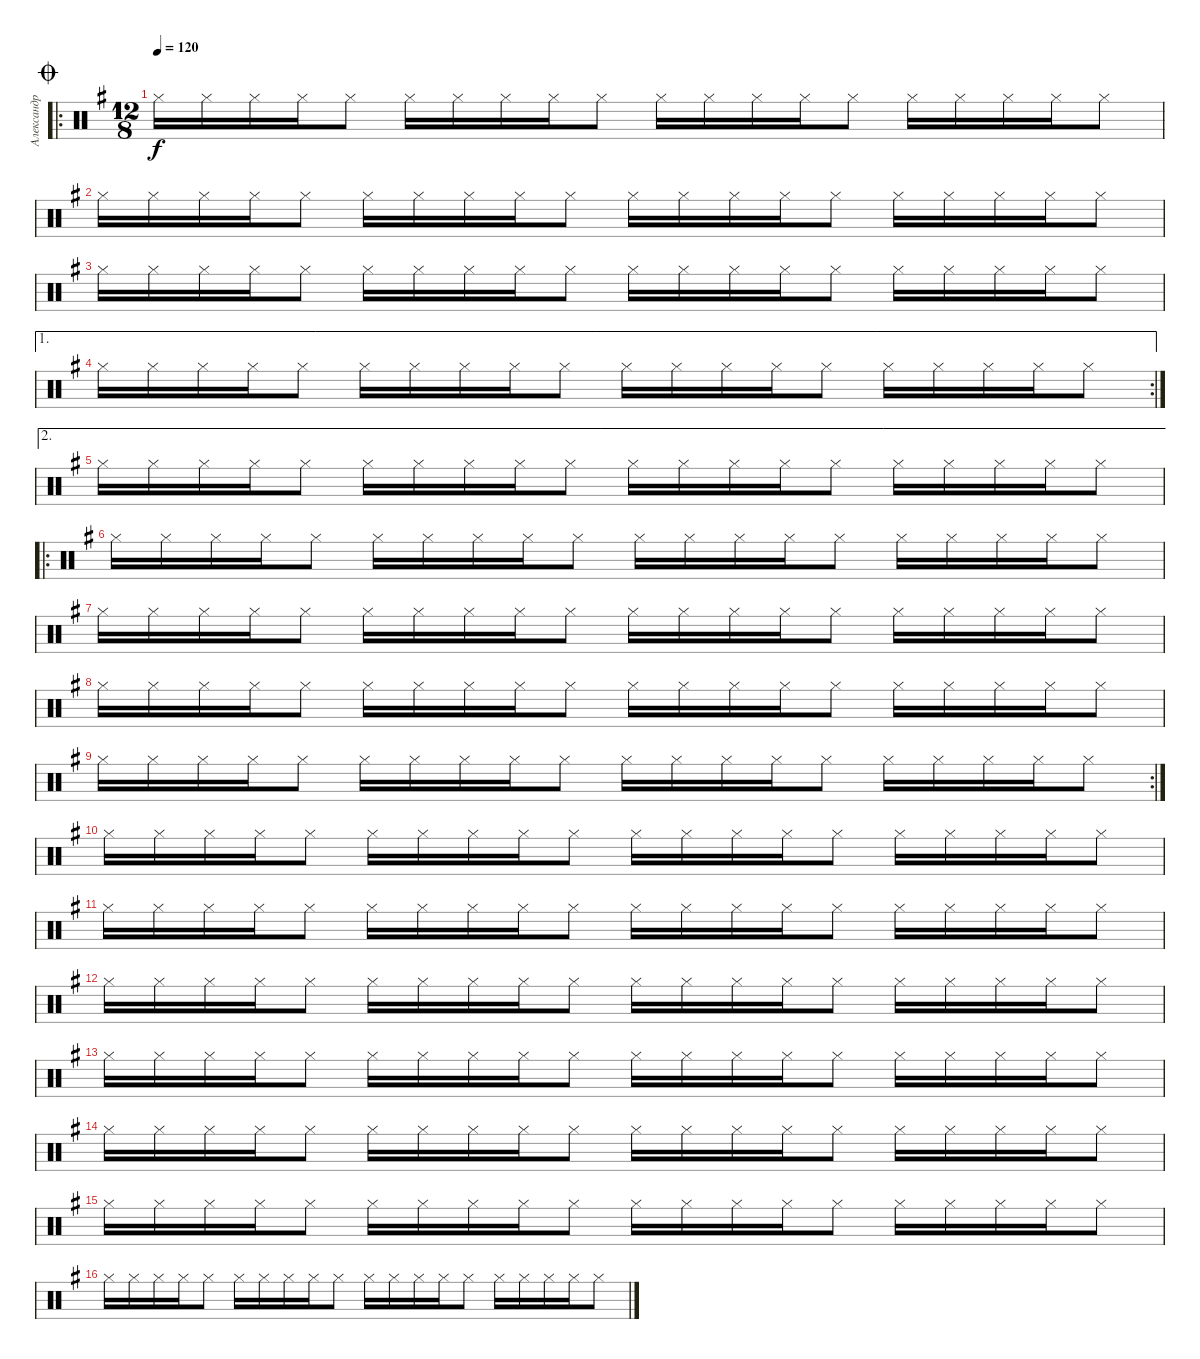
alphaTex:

\track ("Александр Манякин" "Александр ") {instrument percussion}
\staff {score}
\articulation defaults
\ro
\ts (12 8)
\jump coda
\tempo 120
\clef neutral
\ks g "Hi-Hat (closed)".16{dy f} "Hi-Hat (closed)".16 "Hi-Hat (closed)".16 "Hi-Hat (closed)".16 "Hi-Hat (closed)".8 "Hi-Hat (closed)".16 "Hi-Hat (closed)".16 "Hi-Hat (closed)".16 "Hi-Hat (closed)".16 "Hi-Hat (closed)".8 "Hi-Hat (closed)".16 "Hi-Hat (closed)".16 "Hi-Hat (closed)".16 "Hi-Hat (closed)".16 "Hi-Hat (closed)".8 "Hi-Hat (closed)".16 "Hi-Hat (closed)".16 "Hi-Hat (closed)".16 "Hi-Hat (closed)".16 "Hi-Hat (closed)".8
|
"Hi-Hat (closed)".16 "Hi-Hat (closed)".16 "Hi-Hat (closed)".16 "Hi-Hat (closed)".16 "Hi-Hat (closed)".8 "Hi-Hat (closed)".16 "Hi-Hat (closed)".16 "Hi-Hat (closed)".16 "Hi-Hat (closed)".16 "Hi-Hat (closed)".8 "Hi-Hat (closed)".16 "Hi-Hat (closed)".16 "Hi-Hat (closed)".16 "Hi-Hat (closed)".16 "Hi-Hat (closed)".8 "Hi-Hat (closed)".16 "Hi-Hat (closed)".16 "Hi-Hat (closed)".16 "Hi-Hat (closed)".16 "Hi-Hat (closed)".8 |
"Hi-Hat (closed)".16 "Hi-Hat (closed)".16 "Hi-Hat (closed)".16 "Hi-Hat (closed)".16 "Hi-Hat (closed)".8 "Hi-Hat (closed)".16 "Hi-Hat (closed)".16 "Hi-Hat (closed)".16 "Hi-Hat (closed)".16 "Hi-Hat (closed)".8 "Hi-Hat (closed)".16 "Hi-Hat (closed)".16 "Hi-Hat (closed)".16 "Hi-Hat (closed)".16 "Hi-Hat (closed)".8 "Hi-Hat (closed)".16 "Hi-Hat (closed)".16 "Hi-Hat (closed)".16 "Hi-Hat (closed)".16 "Hi-Hat (closed)".8 |
\ae 1
\rc 2 "Hi-Hat (closed)".16 "Hi-Hat (closed)".16 "Hi-Hat (closed)".16 "Hi-Hat (closed)".16 "Hi-Hat (closed)".8 "Hi-Hat (closed)".16 "Hi-Hat (closed)".16 "Hi-Hat (closed)".16 "Hi-Hat (closed)".16 "Hi-Hat (closed)".8 "Hi-Hat (closed)".16 "Hi-Hat (closed)".16 "Hi-Hat (closed)".16 "Hi-Hat (closed)".16 "Hi-Hat (closed)".8 "Hi-Hat (closed)".16 "Hi-Hat (closed)".16 "Hi-Hat (closed)".16 "Hi-Hat (closed)".16 "Hi-Hat (closed)".8
|
\ae 2 "Hi-Hat (closed)".16 "Hi-Hat (closed)".16 "Hi-Hat (closed)".16 "Hi-Hat (closed)".16 "Hi-Hat (closed)".8 "Hi-Hat (closed)".16 "Hi-Hat (closed)".16 "Hi-Hat (closed)".16 "Hi-Hat (closed)".16 "Hi-Hat (closed)".8 "Hi-Hat (closed)".16 "Hi-Hat (closed)".16 "Hi-Hat (closed)".16 "Hi-Hat (closed)".16 "Hi-Hat (closed)".8 "Hi-Hat (closed)".16 "Hi-Hat (closed)".16 "Hi-Hat (closed)".16 "Hi-Hat (closed)".16 "Hi-Hat (closed)".8
|
\ro "Hi-Hat (closed)".16 "Hi-Hat (closed)".16 "Hi-Hat (closed)".16 "Hi-Hat (closed)".16 "Hi-Hat (closed)".8 "Hi-Hat (closed)".16 "Hi-Hat (closed)".16 "Hi-Hat (closed)".16 "Hi-Hat (closed)".16 "Hi-Hat (closed)".8 "Hi-Hat (closed)".16 "Hi-Hat (closed)".16 "Hi-Hat (closed)".16 "Hi-Hat (closed)".16 "Hi-Hat (closed)".8 "Hi-Hat (closed)".16 "Hi-Hat (closed)".16 "Hi-Hat (closed)".16 "Hi-Hat (closed)".16 "Hi-Hat (closed)".8
|
"Hi-Hat (closed)".16 "Hi-Hat (closed)".16 "Hi-Hat (closed)".16 "Hi-Hat (closed)".16 "Hi-Hat (closed)".8 "Hi-Hat (closed)".16 "Hi-Hat (closed)".16 "Hi-Hat (closed)".16 "Hi-Hat (closed)".16 "Hi-Hat (closed)".8 "Hi-Hat (closed)".16 "Hi-Hat (closed)".16 "Hi-Hat (closed)".16 "Hi-Hat (closed)".16 "Hi-Hat (closed)".8 "Hi-Hat (closed)".16 "Hi-Hat (closed)".16 "Hi-Hat (closed)".16 "Hi-Hat (closed)".16 "Hi-Hat (closed)".8 |
"Hi-Hat (closed)".16 "Hi-Hat (closed)".16 "Hi-Hat (closed)".16 "Hi-Hat (closed)".16 "Hi-Hat (closed)".8 "Hi-Hat (closed)".16 "Hi-Hat (closed)".16 "Hi-Hat (closed)".16 "Hi-Hat (closed)".16 "Hi-Hat (closed)".8 "Hi-Hat (closed)".16 "Hi-Hat (closed)".16 "Hi-Hat (closed)".16 "Hi-Hat (closed)".16 "Hi-Hat (closed)".8 "Hi-Hat (closed)".16 "Hi-Hat (closed)".16 "Hi-Hat (closed)".16 "Hi-Hat (closed)".16 "Hi-Hat (closed)".8 |
\rc 2 "Hi-Hat (closed)".16 "Hi-Hat (closed)".16 "Hi-Hat (closed)".16 "Hi-Hat (closed)".16 "Hi-Hat (closed)".8 "Hi-Hat (closed)".16 "Hi-Hat (closed)".16 "Hi-Hat (closed)".16 "Hi-Hat (closed)".16 "Hi-Hat (closed)".8 "Hi-Hat (closed)".16 "Hi-Hat (closed)".16 "Hi-Hat (closed)".16 "Hi-Hat (closed)".16 "Hi-Hat (closed)".8 "Hi-Hat (closed)".16 "Hi-Hat (closed)".16 "Hi-Hat (closed)".16 "Hi-Hat (closed)".16 "Hi-Hat (closed)".8
|
"Hi-Hat (closed)".16 "Hi-Hat (closed)".16 "Hi-Hat (closed)".16 "Hi-Hat (closed)".16 "Hi-Hat (closed)".8 "Hi-Hat (closed)".16 "Hi-Hat (closed)".16 "Hi-Hat (closed)".16 "Hi-Hat (closed)".16 "Hi-Hat (closed)".8 "Hi-Hat (closed)".16 "Hi-Hat (closed)".16 "Hi-Hat (closed)".16 "Hi-Hat (closed)".16 "Hi-Hat (closed)".8 "Hi-Hat (closed)".16 "Hi-Hat (closed)".16 "Hi-Hat (closed)".16 "Hi-Hat (closed)".16 "Hi-Hat (closed)".8 |
"Hi-Hat (closed)".16 "Hi-Hat (closed)".16 "Hi-Hat (closed)".16 "Hi-Hat (closed)".16 "Hi-Hat (closed)".8 "Hi-Hat (closed)".16 "Hi-Hat (closed)".16 "Hi-Hat (closed)".16 "Hi-Hat (closed)".16 "Hi-Hat (closed)".8 "Hi-Hat (closed)".16 "Hi-Hat (closed)".16 "Hi-Hat (closed)".16 "Hi-Hat (closed)".16 "Hi-Hat (closed)".8 "Hi-Hat (closed)".16 "Hi-Hat (closed)".16 "Hi-Hat (closed)".16 "Hi-Hat (closed)".16 "Hi-Hat (closed)".8 |
"Hi-Hat (closed)".16 "Hi-Hat (closed)".16 "Hi-Hat (closed)".16 "Hi-Hat (closed)".16 "Hi-Hat (closed)".8 "Hi-Hat (closed)".16 "Hi-Hat (closed)".16 "Hi-Hat (closed)".16 "Hi-Hat (closed)".16 "Hi-Hat (closed)".8 "Hi-Hat (closed)".16 "Hi-Hat (closed)".16 "Hi-Hat (closed)".16 "Hi-Hat (closed)".16 "Hi-Hat (closed)".8 "Hi-Hat (closed)".16 "Hi-Hat (closed)".16 "Hi-Hat (closed)".16 "Hi-Hat (closed)".16 "Hi-Hat (closed)".8 |
"Hi-Hat (closed)".16 "Hi-Hat (closed)".16 "Hi-Hat (closed)".16 "Hi-Hat (closed)".16 "Hi-Hat (closed)".8 "Hi-Hat (closed)".16 "Hi-Hat (closed)".16 "Hi-Hat (closed)".16 "Hi-Hat (closed)".16 "Hi-Hat (closed)".8 "Hi-Hat (closed)".16 "Hi-Hat (closed)".16 "Hi-Hat (closed)".16 "Hi-Hat (closed)".16 "Hi-Hat (closed)".8 "Hi-Hat (closed)".16 "Hi-Hat (closed)".16 "Hi-Hat (closed)".16 "Hi-Hat (closed)".16 "Hi-Hat (closed)".8 |
"Hi-Hat (closed)".16 "Hi-Hat (closed)".16 "Hi-Hat (closed)".16 "Hi-Hat (closed)".16 "Hi-Hat (closed)".8 "Hi-Hat (closed)".16 "Hi-Hat (closed)".16 "Hi-Hat (closed)".16 "Hi-Hat (closed)".16 "Hi-Hat (closed)".8 "Hi-Hat (closed)".16 "Hi-Hat (closed)".16 "Hi-Hat (closed)".16 "Hi-Hat (closed)".16 "Hi-Hat (closed)".8 "Hi-Hat (closed)".16 "Hi-Hat (closed)".16 "Hi-Hat (closed)".16 "Hi-Hat (closed)".16 "Hi-Hat (closed)".8 |
"Hi-Hat (closed)".16 "Hi-Hat (closed)".16 "Hi-Hat (closed)".16 "Hi-Hat (closed)".16 "Hi-Hat (closed)".8 "Hi-Hat (closed)".16 "Hi-Hat (closed)".16 "Hi-Hat (closed)".16 "Hi-Hat (closed)".16 "Hi-Hat (closed)".8 "Hi-Hat (closed)".16 "Hi-Hat (closed)".16 "Hi-Hat (closed)".16 "Hi-Hat (closed)".16 "Hi-Hat (closed)".8 "Hi-Hat (closed)".16 "Hi-Hat (closed)".16 "Hi-Hat (closed)".16 "Hi-Hat (closed)".16 "Hi-Hat (closed)".8 |
"Hi-Hat (closed)".16 "Hi-Hat (closed)".16 "Hi-Hat (closed)".16 "Hi-Hat (closed)".16 "Hi-Hat (closed)".8 "Hi-Hat (closed)".16 "Hi-Hat (closed)".16 "Hi-Hat (closed)".16 "Hi-Hat (closed)".16 "Hi-Hat (closed)".8 "Hi-Hat (closed)".16 "Hi-Hat (closed)".16 "Hi-Hat (closed)".16 "Hi-Hat (closed)".16 "Hi-Hat (closed)".8 "Hi-Hat (closed)".16 "Hi-Hat (closed)".16 "Hi-Hat (closed)".16 "Hi-Hat (closed)".16 "Hi-Hat (closed)".8
